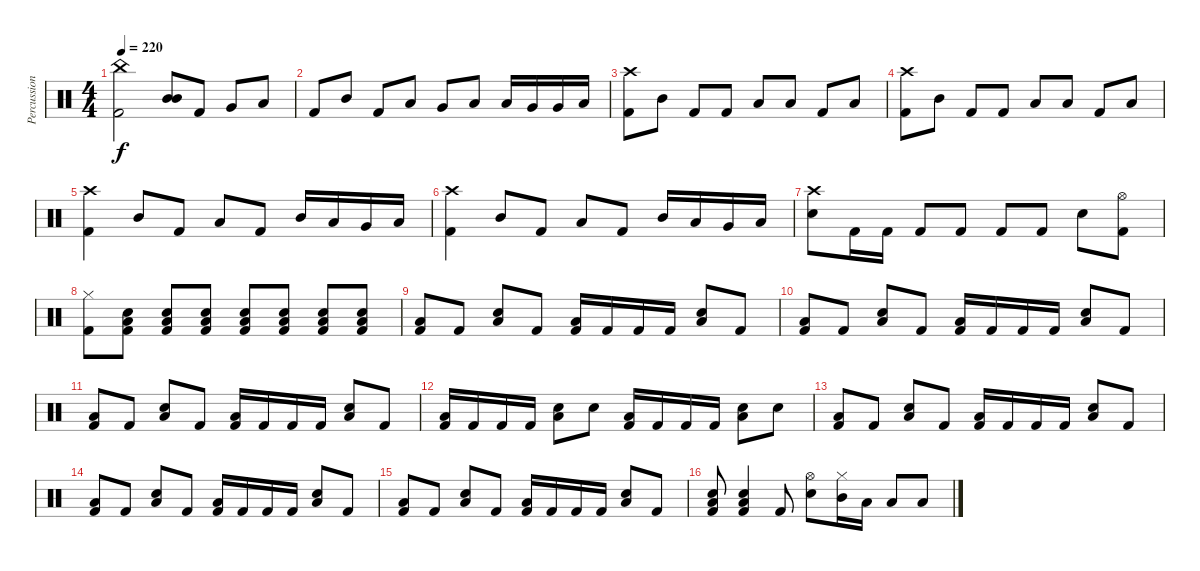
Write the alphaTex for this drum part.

\track ("Percussions" "Percussion") {instrument percussion}
\staff {score}
\articulation defaults
\ts (4 4)
\tempo 220
\clef neutral
\ks c
("China (hit)" "Kick (hit) 2").2{dy f} ("Mid Tom (hit)" "Mid Tom (hit)").8{bd 120} "Kick (hit) 2".8 "Very Low Tom (hit)".8 "Low Floor Tom (hit)".8 |
"Kick (hit) 2".8 "Mid Tom (hit)".8 "Kick (hit) 2".8 "Low Tom (hit)".8 "Very Low Tom (hit)".8 "Low Tom (hit)".8 "Low Tom (hit)".16 "Very Low Tom (hit)".16 "Very Low Tom (hit)".16 "Low Floor Tom (hit)".16 |
("Crash high (hit)" "Kick (hit) 2").8 "Mid Tom (hit)".8 "Kick (hit) 2".8 "Kick (hit) 2".8 "Low Tom (hit)".8 "Low Tom (hit)".8 "Kick (hit) 2".8 "Low Tom (hit)".8 |
("Crash high (hit)" "Kick (hit) 2").8 "Mid Tom (hit)".8 "Kick (hit) 2".8 "Kick (hit) 2".8 "Low Tom (hit)".8 "Low Tom (hit)".8 "Kick (hit) 2".8 "Low Tom (hit)".8 |
("Crash high (hit)" "Kick (hit) 2").4 "Mid Tom (hit)".8 "Kick (hit) 2".8 "Low Floor Tom (hit)".8 "Kick (hit) 2".8 "Mid Tom (hit)".16 "Low Tom (hit)".16 "Very Low Tom (hit)".16 "Low Floor Tom (hit)".16 |
("Crash high (hit)" "Kick (hit) 2").4 "Mid Tom (hit)".8 "Kick (hit) 2".8 "Low Floor Tom (hit)".8 "Kick (hit) 2".8 "Mid Tom (hit)".16 "Low Tom (hit)".16 "Very Low Tom (hit)".16 "Low Floor Tom (hit)".16 |
("Crash high (hit)" "Snare (hit) 2").8 "Kick (hit) 2".16 "Kick (hit) 2".16 "Kick (hit) 2".8 "Kick (hit) 2".8 "Kick (hit) 2".8 "Kick (hit) 2".8 "Snare (hit) 2".8 ("Hi-Hat (open)" "Kick (hit) 2").8 |
("Hi-Hat (closed)" "Kick (hit) 2").8 ("Snare (hit) 2" "Low Floor Tom (hit)" "Kick (hit) 2").8 ("Snare (hit) 2" "Low Floor Tom (hit)" "Kick (hit) 2").8 ("Snare (hit) 2" "Low Floor Tom (hit)" "Kick (hit) 2").8 ("Snare (hit) 2" "Low Floor Tom (hit)" "Kick (hit) 2").8 ("Snare (hit) 2" "Low Floor Tom (hit)" "Kick (hit) 2").8 ("Snare (hit) 2" "Low Floor Tom (hit)" "Kick (hit) 2").8 ("Snare (hit) 2" "Low Floor Tom (hit)" "Kick (hit) 2").8 |
("Low Floor Tom (hit)" "Kick (hit) 2").8 "Kick (hit) 2".8 ("Low Floor Tom (hit)" "Snare (hit) 2").8 "Kick (hit) 2".8 ("Low Floor Tom (hit)" "Kick (hit) 2").16 "Kick (hit) 2".16 "Kick (hit) 2".16 "Kick (hit) 2".16 ("Low Floor Tom (hit)" "Snare (hit) 2").8 "Kick (hit) 2".8 |
("Low Floor Tom (hit)" "Kick (hit) 2").8 "Kick (hit) 2".8 ("Low Floor Tom (hit)" "Snare (hit) 2").8 "Kick (hit) 2".8 ("Low Floor Tom (hit)" "Kick (hit) 2").16 "Kick (hit) 2".16 "Kick (hit) 2".16 "Kick (hit) 2".16 ("Low Floor Tom (hit)" "Snare (hit) 2").8 "Kick (hit) 2".8 |
("Low Floor Tom (hit)" "Kick (hit) 2").8 "Kick (hit) 2".8 ("Low Floor Tom (hit)" "Snare (hit) 2").8 "Kick (hit) 2".8 ("Low Floor Tom (hit)" "Kick (hit) 2").16 "Kick (hit) 2".16 "Kick (hit) 2".16 "Kick (hit) 2".16 ("Low Floor Tom (hit)" "Snare (hit) 2").8 "Kick (hit) 2".8 |
("Low Floor Tom (hit)" "Kick (hit) 2").16 "Kick (hit) 2".16 "Kick (hit) 2".16 "Kick (hit) 2".16 ("Low Floor Tom (hit)" "Snare (hit) 2").8 "Snare (hit) 2".8 ("Low Floor Tom (hit)" "Kick (hit) 2").16 "Kick (hit) 2".16 "Kick (hit) 2".16 "Kick (hit) 2".16 ("Low Floor Tom (hit)" "Snare (hit) 2").8 "Snare (hit) 2".8 |
("Low Floor Tom (hit)" "Kick (hit) 2").8 "Kick (hit) 2".8 ("Low Floor Tom (hit)" "Snare (hit) 2").8 "Kick (hit) 2".8 ("Low Floor Tom (hit)" "Kick (hit) 2").16 "Kick (hit) 2".16 "Kick (hit) 2".16 "Kick (hit) 2".16 ("Low Floor Tom (hit)" "Snare (hit) 2").8 "Kick (hit) 2".8 |
("Low Floor Tom (hit)" "Kick (hit) 2").8 "Kick (hit) 2".8 ("Low Floor Tom (hit)" "Snare (hit) 2").8 "Kick (hit) 2".8 ("Low Floor Tom (hit)" "Kick (hit) 2").16 "Kick (hit) 2".16 "Kick (hit) 2".16 "Kick (hit) 2".16 ("Low Floor Tom (hit)" "Snare (hit) 2").8 "Kick (hit) 2".8 |
("Low Floor Tom (hit)" "Kick (hit) 2").8 "Kick (hit) 2".8 ("Low Floor Tom (hit)" "Snare (hit) 2").8 "Kick (hit) 2".8 ("Low Floor Tom (hit)" "Kick (hit) 2").16 "Kick (hit) 2".16 "Kick (hit) 2".16 "Kick (hit) 2".16 ("Low Floor Tom (hit)" "Snare (hit) 2").8 "Kick (hit) 2".8 |
("Low Floor Tom (hit)" "Snare (hit) 2" "Kick (hit) 2").8 ("Low Floor Tom (hit)" "Snare (hit) 2" "Kick (hit) 2").4 "Kick (hit) 2".8 ("Hi-Hat (open)" "Snare (hit) 2").8 ("Hi-Hat (closed)" "Mid Tom (hit)").16 "Low Tom (hit)".16 "Low Floor Tom (hit)".8 "Low Floor Tom (hit)".8
